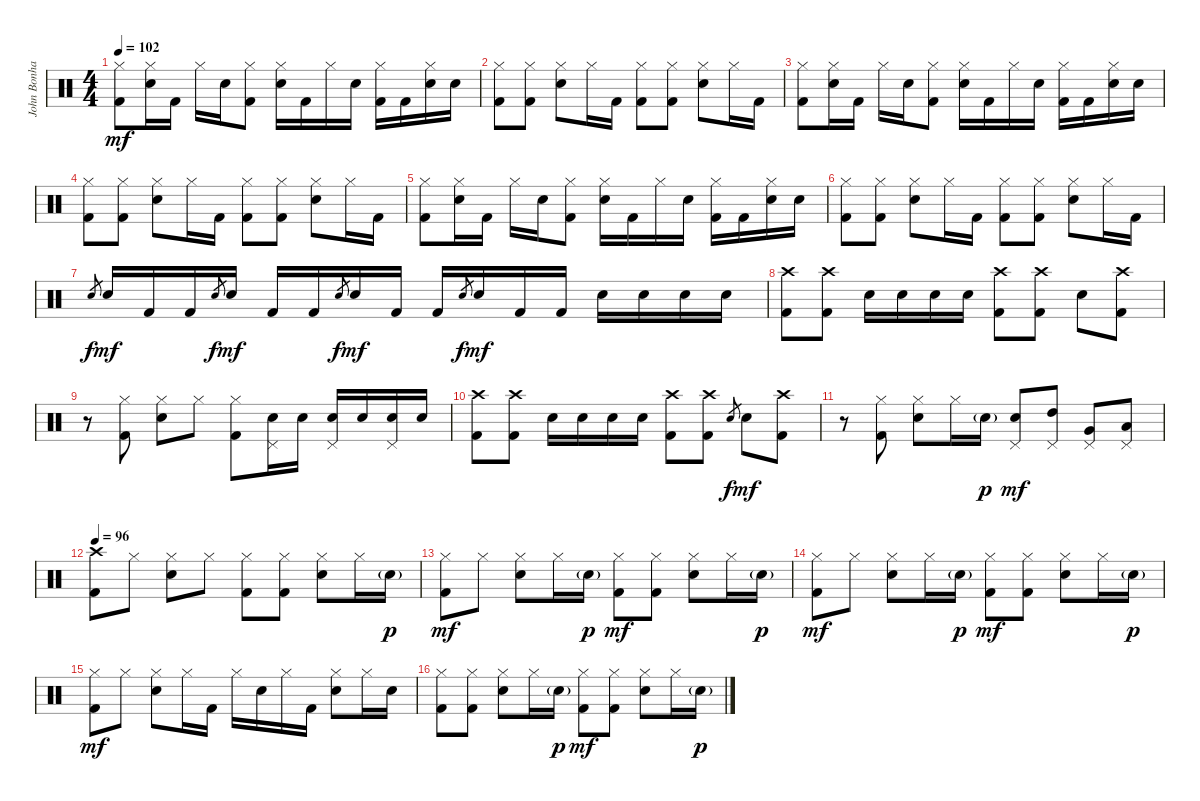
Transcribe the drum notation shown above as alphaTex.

\track ("John Bonham - Drums" "John Bonha") {instrument percussion}
\staff {score}
\articulation defaults
\ts (4 4)
\tempo 102
\clef neutral
\ks c
("Hi-Hat (closed)" "Kick (hit) 2").8{dy mf} ("Hi-Hat (closed)" "Snare (hit) 2").16 "Kick (hit) 2".16 "Hi-Hat (closed)".16 "Snare (hit) 2".16 ("Hi-Hat (closed)" "Kick (hit) 2").8 ("Hi-Hat (closed)" "Snare (hit) 2").16 "Kick (hit) 2".16 "Hi-Hat (closed)".16 "Snare (hit) 2".16 ("Hi-Hat (closed)" "Kick (hit) 2").16 "Kick (hit) 2".16 ("Hi-Hat (closed)" "Snare (hit) 2").16 "Snare (hit) 2".16 |
("Hi-Hat (closed)" "Kick (hit) 2").8 ("Hi-Hat (closed)" "Kick (hit) 2").8 ("Hi-Hat (closed)" "Snare (hit) 2").8 "Hi-Hat (closed)".16 "Kick (hit) 2".16 ("Hi-Hat (closed)" "Kick (hit) 2").8 ("Hi-Hat (closed)" "Kick (hit) 2").8 ("Hi-Hat (closed)" "Snare (hit) 2").8 "Hi-Hat (closed)".16 "Kick (hit) 2".16 |
("Hi-Hat (closed)" "Kick (hit) 2").8 ("Hi-Hat (closed)" "Snare (hit) 2").16 "Kick (hit) 2".16 "Hi-Hat (closed)".16 "Snare (hit) 2".16 ("Hi-Hat (closed)" "Kick (hit) 2").8 ("Hi-Hat (closed)" "Snare (hit) 2").16 "Kick (hit) 2".16 "Hi-Hat (closed)".16 "Snare (hit) 2".16 ("Hi-Hat (closed)" "Kick (hit) 2").16 "Kick (hit) 2".16 ("Hi-Hat (closed)" "Snare (hit) 2").16 "Snare (hit) 2".16 |
("Hi-Hat (closed)" "Kick (hit) 2").8 ("Hi-Hat (closed)" "Kick (hit) 2").8 ("Hi-Hat (closed)" "Snare (hit) 2").8 "Hi-Hat (closed)".16 "Kick (hit) 2".16 ("Hi-Hat (closed)" "Kick (hit) 2").8 ("Hi-Hat (closed)" "Kick (hit) 2").8 ("Hi-Hat (closed)" "Snare (hit) 2").8 "Hi-Hat (closed)".16 "Kick (hit) 2".16 |
("Hi-Hat (closed)" "Kick (hit) 2").8 ("Hi-Hat (closed)" "Snare (hit) 2").16 "Kick (hit) 2".16 "Hi-Hat (closed)".16 "Snare (hit) 2".16 ("Hi-Hat (closed)" "Kick (hit) 2").8 ("Hi-Hat (closed)" "Snare (hit) 2").16 "Kick (hit) 2".16 "Hi-Hat (closed)".16 "Snare (hit) 2".16 ("Hi-Hat (closed)" "Kick (hit) 2").16 "Kick (hit) 2".16 ("Hi-Hat (closed)" "Snare (hit) 2").16 "Snare (hit) 2".16 |
("Hi-Hat (closed)" "Kick (hit) 2").8 ("Hi-Hat (closed)" "Kick (hit) 2").8 ("Hi-Hat (closed)" "Snare (hit) 2").8 "Hi-Hat (closed)".16 "Kick (hit) 2".16 ("Hi-Hat (closed)" "Kick (hit) 2").8 ("Hi-Hat (closed)" "Kick (hit) 2").8 ("Hi-Hat (closed)" "Snare (hit) 2").8 "Hi-Hat (closed)".16 "Kick (hit) 2".16 |
"Snare (hit) 2".8{gr dy f} "Snare (hit) 2".16{dy mf} "Kick (hit) 2".16 "Kick (hit) 2".16 "Snare (hit) 2".8{gr dy f} "Snare (hit) 2".16{dy mf} "Kick (hit) 2".16 "Kick (hit) 2".16 "Snare (hit) 2".8{gr dy f} "Snare (hit) 2".16{dy mf} "Kick (hit) 2".16 "Kick (hit) 2".16 "Snare (hit) 2".8{gr dy f} "Snare (hit) 2".16{dy mf} "Kick (hit) 2".16 "Kick (hit) 2".16 "Snare (hit) 2".16 "Snare (hit) 2".16 "Snare (hit) 2".16 "Snare (hit) 2".16 |
("Crash high (hit)" "Kick (hit) 2").8 ("Crash high (hit)" "Kick (hit) 2").8 "Snare (hit) 2".16 "Snare (hit) 2".16 "Snare (hit) 2".16 "Snare (hit) 2".16 ("Crash high (hit)" "Kick (hit) 2").8 ("Crash high (hit)" "Kick (hit) 2").8 "Snare (hit) 2".8 ("Crash high (hit)" "Kick (hit) 2").8 |
r.8 ("Hi-Hat (closed)" "Kick (hit) 2").8 ("Hi-Hat (closed)" "Snare (hit) 2").8 "Hi-Hat (closed)".8 ("Hi-Hat (closed)" "Kick (hit) 2").8 ("Snare (hit) 2" "Pedal Hi-Hat (hit)").16 "Snare (hit) 2".16 ("Snare (hit) 2" "Pedal Hi-Hat (hit)").16 "Snare (hit) 2".16 ("Snare (hit) 2" "Pedal Hi-Hat (hit)").16 "Snare (hit) 2".16 |
("Crash high (hit)" "Kick (hit) 2").8 ("Crash high (hit)" "Kick (hit) 2").8 "Snare (hit) 2".16 "Snare (hit) 2".16 "Snare (hit) 2".16 "Snare (hit) 2".16 ("Crash high (hit)" "Kick (hit) 2").8 ("Crash high (hit)" "Kick (hit) 2").8 "Snare (hit) 2".8{gr dy f} "Snare (hit) 2".8{dy mf} ("Crash high (hit)" "Kick (hit) 2").8 |
r.8 ("Hi-Hat (closed)" "Kick (hit) 2").8 ("Hi-Hat (closed)" "Snare (hit) 2").8 "Hi-Hat (closed)".16 "Snare (hit) 2"{g}.16{dy p} ("Snare (hit) 2" "Pedal Hi-Hat (hit)").8{dy mf} ("High Tom (hit)" "Pedal Hi-Hat (hit)").8 ("Very Low Tom (hit)" "Pedal Hi-Hat (hit)").8 ("Low Floor Tom (hit)" "Pedal Hi-Hat (hit)").8 |
\tempo 96
("Crash high (hit)" "Kick (hit) 2").8 "Hi-Hat (closed)".8 ("Hi-Hat (closed)" "Snare (hit) 2").8 "Hi-Hat (closed)".8 ("Hi-Hat (closed)" "Kick (hit) 2").8 ("Hi-Hat (closed)" "Kick (hit) 2").8 ("Hi-Hat (closed)" "Snare (hit) 2").8 "Hi-Hat (closed)".16 "Snare (hit) 2"{g}.16{dy p} |
("Hi-Hat (closed)" "Kick (hit) 2").8{dy mf} "Hi-Hat (closed)".8 ("Hi-Hat (closed)" "Snare (hit) 2").8 "Hi-Hat (closed)".16 "Snare (hit) 2"{g}.16{dy p} ("Hi-Hat (closed)" "Kick (hit) 2").8{dy mf} ("Hi-Hat (closed)" "Kick (hit) 2").8 ("Hi-Hat (closed)" "Snare (hit) 2").8 "Hi-Hat (closed)".16 "Snare (hit) 2"{g}.16{dy p} |
("Hi-Hat (closed)" "Kick (hit) 2").8{dy mf} "Hi-Hat (closed)".8 ("Hi-Hat (closed)" "Snare (hit) 2").8 "Hi-Hat (closed)".16 "Snare (hit) 2"{g}.16{dy p} ("Hi-Hat (closed)" "Kick (hit) 2").8{dy mf} ("Hi-Hat (closed)" "Kick (hit) 2").8 ("Hi-Hat (closed)" "Snare (hit) 2").8 "Hi-Hat (closed)".16 "Snare (hit) 2"{g}.16{dy p} |
("Hi-Hat (closed)" "Kick (hit) 2").8{dy mf} "Hi-Hat (closed)".8 ("Hi-Hat (closed)" "Snare (hit) 2").8 "Hi-Hat (closed)".16 "Kick (hit) 2".16 "Hi-Hat (closed)".16 "Snare (hit) 2".16 "Hi-Hat (closed)".16 "Kick (hit) 2".16 ("Hi-Hat (closed)" "Snare (hit) 2").8 "Hi-Hat (closed)".16 "Snare (hit) 2".16 |
("Hi-Hat (closed)" "Kick (hit) 2").8 ("Hi-Hat (closed)" "Kick (hit) 2").8 ("Hi-Hat (closed)" "Snare (hit) 2").8 "Hi-Hat (closed)".16 "Snare (hit) 2"{g}.16{dy p} ("Hi-Hat (closed)" "Kick (hit) 2").8{dy mf} ("Hi-Hat (closed)" "Kick (hit) 2").8 ("Hi-Hat (closed)" "Snare (hit) 2").8 "Hi-Hat (closed)".16 "Snare (hit) 2"{g}.16{dy p}
